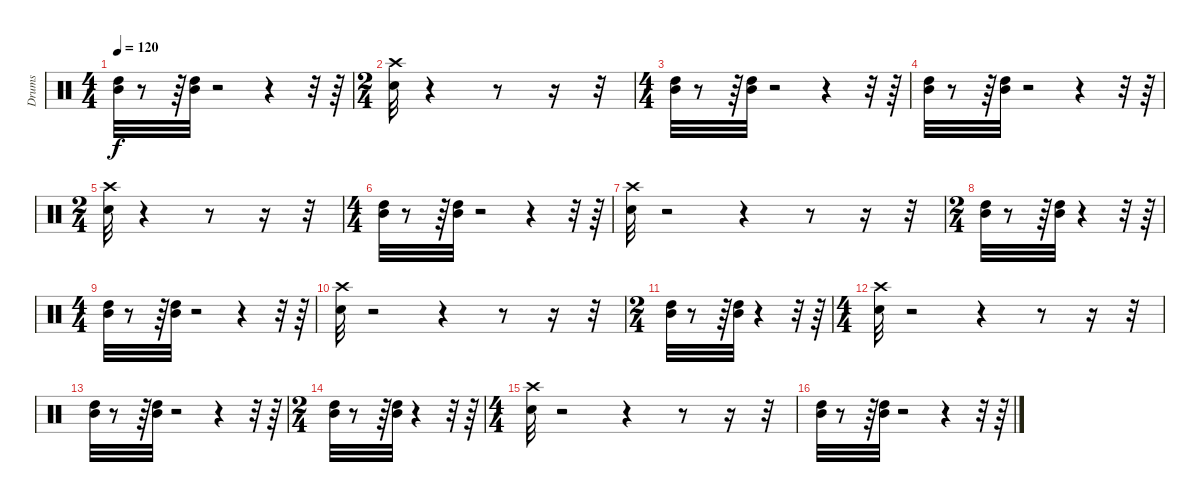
\track ("Drums" "Drums") {instrument percussion}
\staff {score}
\articulation defaults
\ts (4 4)
\tempo 120
\clef neutral
\ks c
("Mid Tom (hit)" "High Tom (hit)").32{dy f} r.8 r.64 ("Mid Tom (hit)" "High Tom (hit)").32 r.2 r.4 r.32 r.64 |
\ts (2 4)
("Snare (hit) 2" "Crash high (hit)").32 r.4 r.8 r.16 r.32 |
\ts (4 4)
("Mid Tom (hit)" "High Tom (hit)").32 r.8 r.64 ("Mid Tom (hit)" "High Tom (hit)").32 r.2 r.4 r.32 r.64 |
("Mid Tom (hit)" "High Tom (hit)").32 r.8 r.64 ("Mid Tom (hit)" "High Tom (hit)").32 r.2 r.4 r.32 r.64 |
\ts (2 4)
("Snare (hit) 2" "Crash high (hit)").32 r.4 r.8 r.16 r.32 |
\ts (4 4)
("Mid Tom (hit)" "High Tom (hit)").32 r.8 r.64 ("Mid Tom (hit)" "High Tom (hit)").32 r.2 r.4 r.32 r.64 |
("Snare (hit) 2" "Crash high (hit)").32 r.2 r.4 r.8 r.16 r.32 |
\ts (2 4)
("Mid Tom (hit)" "High Tom (hit)").32 r.8 r.64 ("Mid Tom (hit)" "High Tom (hit)").32 r.4 r.32 r.64 |
\ts (4 4)
("Mid Tom (hit)" "High Tom (hit)").32 r.8 r.64 ("Mid Tom (hit)" "High Tom (hit)").32 r.2 r.4 r.32 r.64 |
("Snare (hit) 2" "Crash high (hit)").32 r.2 r.4 r.8 r.16 r.32 |
\ts (2 4)
("Mid Tom (hit)" "High Tom (hit)").32 r.8 r.64 ("Mid Tom (hit)" "High Tom (hit)").32 r.4 r.32 r.64 |
\ts (4 4)
("Snare (hit) 2" "Crash high (hit)").32 r.2 r.4 r.8 r.16 r.32 |
("Mid Tom (hit)" "High Tom (hit)").32 r.8 r.64 ("Mid Tom (hit)" "High Tom (hit)").32 r.2 r.4 r.32 r.64 |
\ts (2 4)
("Mid Tom (hit)" "High Tom (hit)").32 r.8 r.64 ("Mid Tom (hit)" "High Tom (hit)").32 r.4 r.32 r.64 |
\ts (4 4)
("Snare (hit) 2" "Crash high (hit)").32 r.2 r.4 r.8 r.16 r.32 |
("Mid Tom (hit)" "High Tom (hit)").32 r.8 r.64 ("Mid Tom (hit)" "High Tom (hit)").32 r.2 r.4 r.32 r.64
